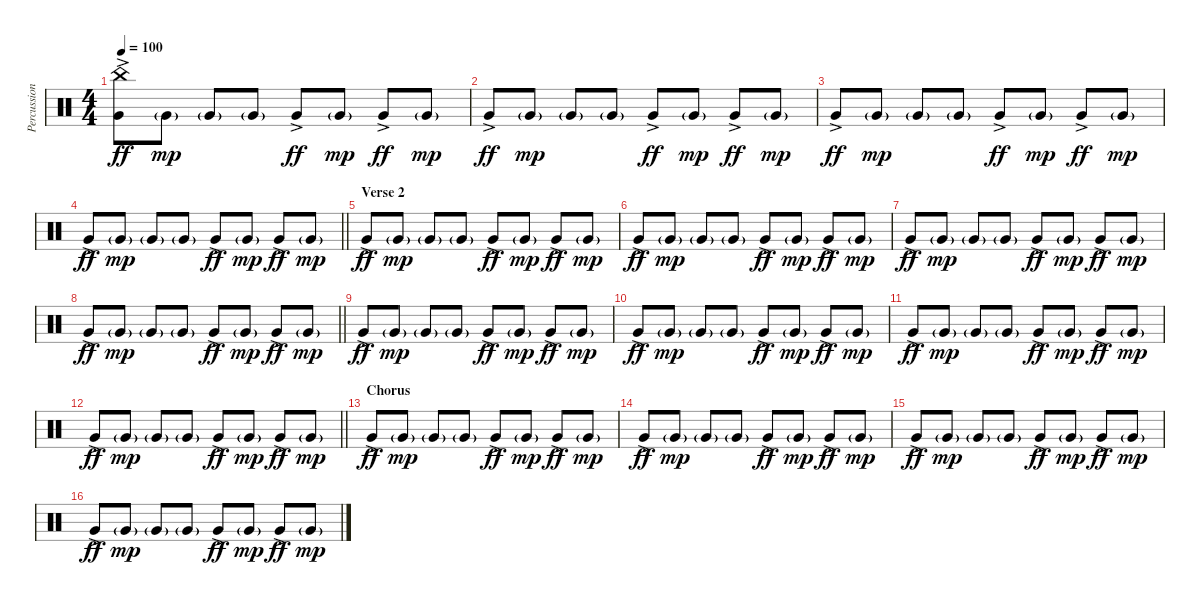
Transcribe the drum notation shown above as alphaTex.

\track ("Percussion" "Percussion") {instrument percussion}
\staff {score}
\articulation defaults
\ts (4 4)
\tempo 100
\clef neutral
\ks c
("China (hit)" "Very Low Tom (hit)"{ac}).8{dy ff} "Very Low Tom (hit)"{g}.8{dy mp} "Very Low Tom (hit)"{g}.8 "Very Low Tom (hit)"{g}.8 "Very Low Tom (hit)"{ac}.8{dy ff} "Very Low Tom (hit)"{g}.8{dy mp} "Very Low Tom (hit)"{ac}.8{dy ff} "Very Low Tom (hit)"{g}.8{dy mp} |
"Very Low Tom (hit)"{ac}.8{dy ff} "Very Low Tom (hit)"{g}.8{dy mp} "Very Low Tom (hit)"{g}.8 "Very Low Tom (hit)"{g}.8 "Very Low Tom (hit)"{ac}.8{dy ff} "Very Low Tom (hit)"{g}.8{dy mp} "Very Low Tom (hit)"{ac}.8{dy ff} "Very Low Tom (hit)"{g}.8{dy mp} |
"Very Low Tom (hit)"{ac}.8{dy ff} "Very Low Tom (hit)"{g}.8{dy mp} "Very Low Tom (hit)"{g}.8 "Very Low Tom (hit)"{g}.8 "Very Low Tom (hit)"{ac}.8{dy ff} "Very Low Tom (hit)"{g}.8{dy mp} "Very Low Tom (hit)"{ac}.8{dy ff} "Very Low Tom (hit)"{g}.8{dy mp} |
\barLineRight lightlight "Very Low Tom (hit)"{ac}.8{dy ff} "Very Low Tom (hit)"{g}.8{dy mp} "Very Low Tom (hit)"{g}.8 "Very Low Tom (hit)"{g}.8 "Very Low Tom (hit)"{ac}.8{dy ff} "Very Low Tom (hit)"{g}.8{dy mp} "Very Low Tom (hit)"{ac}.8{dy ff} "Very Low Tom (hit)"{g}.8{dy mp}
|
\section ("" "Verse 2")
"Very Low Tom (hit)"{ac}.8{dy ff} "Very Low Tom (hit)"{g}.8{dy mp} "Very Low Tom (hit)"{g}.8 "Very Low Tom (hit)"{g}.8 "Very Low Tom (hit)"{ac}.8{dy ff} "Very Low Tom (hit)"{g}.8{dy mp} "Very Low Tom (hit)"{ac}.8{dy ff} "Very Low Tom (hit)"{g}.8{dy mp} |
"Very Low Tom (hit)"{ac}.8{dy ff} "Very Low Tom (hit)"{g}.8{dy mp} "Very Low Tom (hit)"{g}.8 "Very Low Tom (hit)"{g}.8 "Very Low Tom (hit)"{ac}.8{dy ff} "Very Low Tom (hit)"{g}.8{dy mp} "Very Low Tom (hit)"{ac}.8{dy ff} "Very Low Tom (hit)"{g}.8{dy mp} |
"Very Low Tom (hit)"{ac}.8{dy ff} "Very Low Tom (hit)"{g}.8{dy mp} "Very Low Tom (hit)"{g}.8 "Very Low Tom (hit)"{g}.8 "Very Low Tom (hit)"{ac}.8{dy ff} "Very Low Tom (hit)"{g}.8{dy mp} "Very Low Tom (hit)"{ac}.8{dy ff} "Very Low Tom (hit)"{g}.8{dy mp} |
\barLineRight lightlight "Very Low Tom (hit)"{ac}.8{dy ff} "Very Low Tom (hit)"{g}.8{dy mp} "Very Low Tom (hit)"{g}.8 "Very Low Tom (hit)"{g}.8 "Very Low Tom (hit)"{ac}.8{dy ff} "Very Low Tom (hit)"{g}.8{dy mp} "Very Low Tom (hit)"{ac}.8{dy ff} "Very Low Tom (hit)"{g}.8{dy mp}
|
"Very Low Tom (hit)"{ac}.8{dy ff} "Very Low Tom (hit)"{g}.8{dy mp} "Very Low Tom (hit)"{g}.8 "Very Low Tom (hit)"{g}.8 "Very Low Tom (hit)"{ac}.8{dy ff} "Very Low Tom (hit)"{g}.8{dy mp} "Very Low Tom (hit)"{ac}.8{dy ff} "Very Low Tom (hit)"{g}.8{dy mp} |
"Very Low Tom (hit)"{ac}.8{dy ff} "Very Low Tom (hit)"{g}.8{dy mp} "Very Low Tom (hit)"{g}.8 "Very Low Tom (hit)"{g}.8 "Very Low Tom (hit)"{ac}.8{dy ff} "Very Low Tom (hit)"{g}.8{dy mp} "Very Low Tom (hit)"{ac}.8{dy ff} "Very Low Tom (hit)"{g}.8{dy mp} |
"Very Low Tom (hit)"{ac}.8{dy ff} "Very Low Tom (hit)"{g}.8{dy mp} "Very Low Tom (hit)"{g}.8 "Very Low Tom (hit)"{g}.8 "Very Low Tom (hit)"{ac}.8{dy ff} "Very Low Tom (hit)"{g}.8{dy mp} "Very Low Tom (hit)"{ac}.8{dy ff} "Very Low Tom (hit)"{g}.8{dy mp} |
\barLineRight lightlight "Very Low Tom (hit)"{ac}.8{dy ff} "Very Low Tom (hit)"{g}.8{dy mp} "Very Low Tom (hit)"{g}.8 "Very Low Tom (hit)"{g}.8 "Very Low Tom (hit)"{ac}.8{dy ff} "Very Low Tom (hit)"{g}.8{dy mp} "Very Low Tom (hit)"{ac}.8{dy ff} "Very Low Tom (hit)"{g}.8{dy mp}
|
\section ("" "Chorus")
"Very Low Tom (hit)"{ac}.8{dy ff} "Very Low Tom (hit)"{g}.8{dy mp} "Very Low Tom (hit)"{g}.8 "Very Low Tom (hit)"{g}.8 "Very Low Tom (hit)"{ac}.8{dy ff} "Very Low Tom (hit)"{g}.8{dy mp} "Very Low Tom (hit)"{ac}.8{dy ff} "Very Low Tom (hit)"{g}.8{dy mp} |
"Very Low Tom (hit)"{ac}.8{dy ff} "Very Low Tom (hit)"{g}.8{dy mp} "Very Low Tom (hit)"{g}.8 "Very Low Tom (hit)"{g}.8 "Very Low Tom (hit)"{ac}.8{dy ff} "Very Low Tom (hit)"{g}.8{dy mp} "Very Low Tom (hit)"{ac}.8{dy ff} "Very Low Tom (hit)"{g}.8{dy mp} |
"Very Low Tom (hit)"{ac}.8{dy ff} "Very Low Tom (hit)"{g}.8{dy mp} "Very Low Tom (hit)"{g}.8 "Very Low Tom (hit)"{g}.8 "Very Low Tom (hit)"{ac}.8{dy ff} "Very Low Tom (hit)"{g}.8{dy mp} "Very Low Tom (hit)"{ac}.8{dy ff} "Very Low Tom (hit)"{g}.8{dy mp} |
"Very Low Tom (hit)"{ac}.8{dy ff} "Very Low Tom (hit)"{g}.8{dy mp} "Very Low Tom (hit)"{g}.8 "Very Low Tom (hit)"{g}.8 "Very Low Tom (hit)"{ac}.8{dy ff} "Very Low Tom (hit)"{g}.8{dy mp} "Very Low Tom (hit)"{ac}.8{dy ff} "Very Low Tom (hit)"{g}.8{dy mp}
